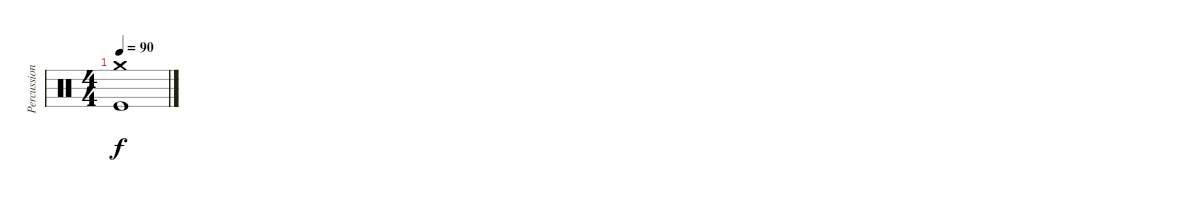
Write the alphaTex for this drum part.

\track ("Percussion" "Percussion") {instrument percussion}
\staff {score}
\articulation defaults
\ts (4 4)
\tempo 90
\clef neutral
\ks c
("Crash medium (hit)" "Kick (hit)").1{dy f}
